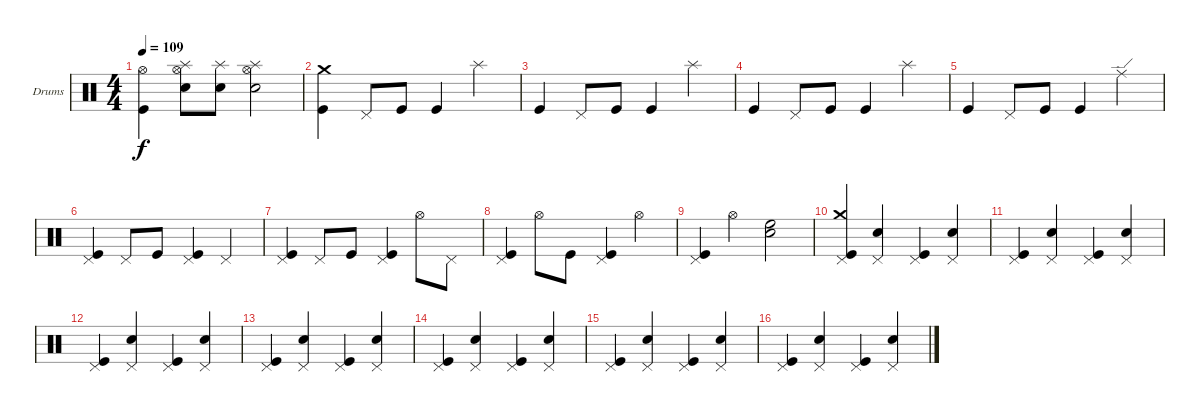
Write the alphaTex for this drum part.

\bracketExtendMode groupsimilarinstruments
\firstSystemTrackNameOrientation horizontal
\otherSystemsTrackNameOrientation horizontal
\track ("Drumkit" "Drums") {instrument percussion}
\staff {score}
\articulation defaults
\ts (4 4)
\tempo 109
\clef neutral
\ks c
("Hi-Hat (open)" "Kick (hit)").4{dy f} ("Splash (hit)" "Hi-Hat (open)" "Snare (hit) 2").8 ("Splash (hit)" "Snare (hit) 2").8 ("Splash (hit)" "Hi-Hat (open)" "Snare (hit) 2").2 |
("Crash medium (hit)" "Kick (hit)").4 "Pedal Hi-Hat (hit)".8 "Kick (hit)".8 "Kick (hit)".4 "Splash (hit)".4 |
"Kick (hit)".4 "Pedal Hi-Hat (hit)".8 "Kick (hit)".8 "Kick (hit)".4 "Splash (hit)".4 |
"Kick (hit)".4 "Pedal Hi-Hat (hit)".8 "Kick (hit)".8 "Kick (hit)".4 "Splash (hit)".4 |
"Kick (hit)".4 "Pedal Hi-Hat (hit)".8 "Kick (hit)".8 "Kick (hit)".4 "Ride (edge)".4 |
("Pedal Hi-Hat (hit)" "Kick (hit)").4 "Pedal Hi-Hat (hit)".8 "Kick (hit)".8 ("Pedal Hi-Hat (hit)" "Kick (hit)").4 "Pedal Hi-Hat (hit)".4 |
("Pedal Hi-Hat (hit)" "Kick (hit)").4 "Pedal Hi-Hat (hit)".8 "Kick (hit)".8 ("Pedal Hi-Hat (hit)" "Kick (hit)").4 "Hi-Hat (open)".8 "Pedal Hi-Hat (hit)".8 |
("Pedal Hi-Hat (hit)" "Kick (hit)").4 "Hi-Hat (open)".8 "Kick (hit)".8 ("Pedal Hi-Hat (hit)" "Kick (hit)").4 "Hi-Hat (open)".4 |
("Pedal Hi-Hat (hit)" "Kick (hit)").4 "Hi-Hat (open)".4 ("High Floor Tom (hit)" "Snare (hit) 2").2 |
("Crash medium (hit)" "Pedal Hi-Hat (hit)" "Kick (hit)").4 ("Pedal Hi-Hat (hit)" "Snare (hit) 2").4 ("Pedal Hi-Hat (hit)" "Kick (hit)").4 ("Pedal Hi-Hat (hit)" "Snare (hit) 2").4 |
("Pedal Hi-Hat (hit)" "Kick (hit)").4 ("Pedal Hi-Hat (hit)" "Snare (hit) 2").4 ("Pedal Hi-Hat (hit)" "Kick (hit)").4 ("Pedal Hi-Hat (hit)" "Snare (hit) 2").4 |
("Pedal Hi-Hat (hit)" "Kick (hit)").4 ("Pedal Hi-Hat (hit)" "Snare (hit) 2").4 ("Pedal Hi-Hat (hit)" "Kick (hit)").4 ("Pedal Hi-Hat (hit)" "Snare (hit) 2").4 |
("Pedal Hi-Hat (hit)" "Kick (hit)").4 ("Pedal Hi-Hat (hit)" "Snare (hit) 2").4 ("Pedal Hi-Hat (hit)" "Kick (hit)").4 ("Pedal Hi-Hat (hit)" "Snare (hit) 2").4 |
("Pedal Hi-Hat (hit)" "Kick (hit)").4 ("Pedal Hi-Hat (hit)" "Snare (hit) 2").4 ("Pedal Hi-Hat (hit)" "Kick (hit)").4 ("Pedal Hi-Hat (hit)" "Snare (hit) 2").4 |
("Pedal Hi-Hat (hit)" "Kick (hit)").4 ("Pedal Hi-Hat (hit)" "Snare (hit) 2").4 ("Pedal Hi-Hat (hit)" "Kick (hit)").4 ("Pedal Hi-Hat (hit)" "Snare (hit) 2").4 |
("Pedal Hi-Hat (hit)" "Kick (hit)").4 ("Pedal Hi-Hat (hit)" "Snare (hit) 2").4 ("Pedal Hi-Hat (hit)" "Kick (hit)").4 ("Pedal Hi-Hat (hit)" "Snare (hit) 2").4
